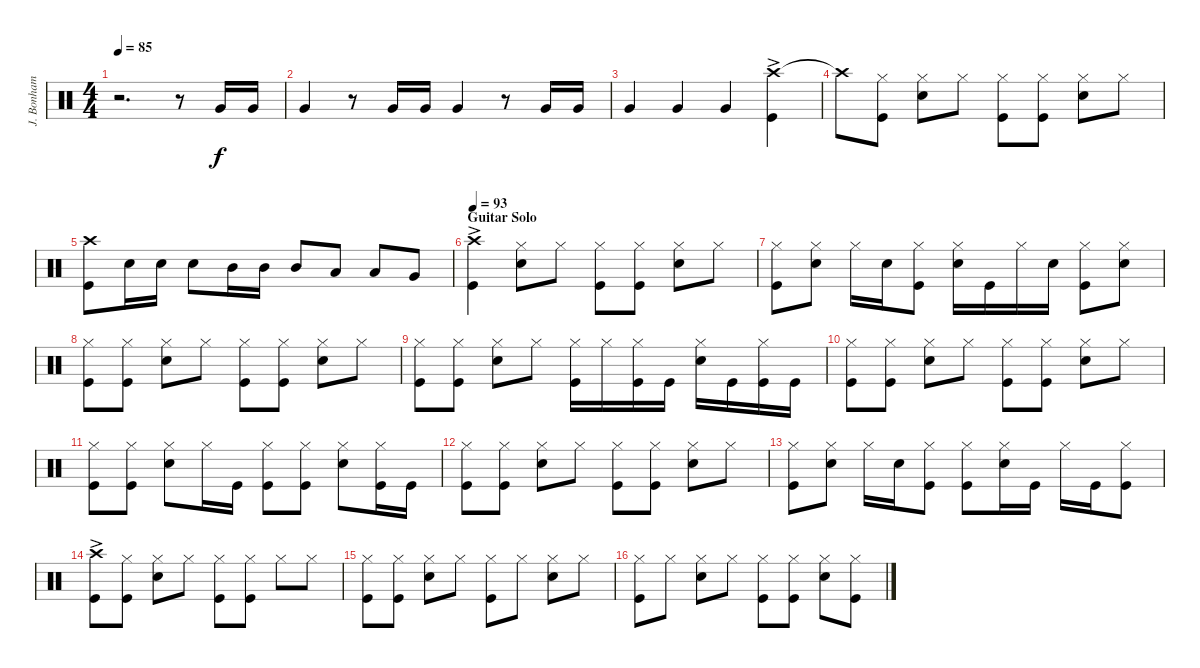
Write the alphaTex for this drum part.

\track ("J. Bonham" "J. Bonham") {instrument percussion}
\staff {score}
\articulation defaults
\ts (4 4)
\tempo 85
\clef neutral
\ks c
r.2{d dy f} r.8 "Very Low Tom (hit)".16 "Very Low Tom (hit)".16 |
"Very Low Tom (hit)".4 r.8 "Very Low Tom (hit)".16 "Very Low Tom (hit)".16 "Very Low Tom (hit)".4 r.8 "Very Low Tom (hit)".16 "Very Low Tom (hit)".16 |
"Very Low Tom (hit)".4 "Very Low Tom (hit)".4 "Very Low Tom (hit)".4 ("Crash high (hit)"{ac} "Kick (hit)").4 |
"Crash high (hit)"{t}.8 ("Hi-Hat (closed)" "Kick (hit)").8 ("Hi-Hat (closed)" "Snare (hit) 2").8 "Hi-Hat (closed)".8 ("Hi-Hat (closed)" "Kick (hit)").8 ("Hi-Hat (closed)" "Kick (hit)").8 ("Hi-Hat (closed)" "Snare (hit) 2").8 "Hi-Hat (closed)".8 |
("Crash high (hit)" "Kick (hit)").8 "Snare (hit) 2".16 "Snare (hit) 2".16 "Snare (hit) 2".8 "Mid Tom (hit)".16 "Mid Tom (hit)".16 "Mid Tom (hit)".8 "Low Tom (hit)".8 "Low Tom (hit)".8 "Very Low Tom (hit)".8 |
\section ("" "Guitar Solo")
\tempo 93
("Crash high (hit)"{ac} "Kick (hit)").4 ("Hi-Hat (closed)" "Snare (hit) 2").8 "Hi-Hat (closed)".8 ("Hi-Hat (closed)" "Kick (hit)").8 ("Hi-Hat (closed)" "Kick (hit)").8 ("Hi-Hat (closed)" "Snare (hit) 2").8 "Hi-Hat (closed)".8 |
("Hi-Hat (closed)" "Kick (hit)").8 ("Hi-Hat (closed)" "Snare (hit) 2").8 "Hi-Hat (closed)".16 "Snare (hit) 2".16 ("Hi-Hat (closed)" "Kick (hit)").8 ("Hi-Hat (closed)" "Snare (hit) 2").16 "Kick (hit)".16 "Hi-Hat (closed)".16 "Snare (hit) 2".16 ("Hi-Hat (closed)" "Kick (hit)").8 ("Hi-Hat (closed)" "Snare (hit) 2").8 |
("Hi-Hat (closed)" "Kick (hit)").8 ("Hi-Hat (closed)" "Kick (hit)").8 ("Hi-Hat (closed)" "Snare (hit) 2").8 "Hi-Hat (closed)".8 ("Hi-Hat (closed)" "Kick (hit)").8 ("Hi-Hat (closed)" "Kick (hit)").8 ("Hi-Hat (closed)" "Snare (hit) 2").8 "Hi-Hat (closed)".8 |
("Hi-Hat (closed)" "Kick (hit)").8 ("Hi-Hat (closed)" "Kick (hit)").8 ("Hi-Hat (closed)" "Snare (hit) 2").8 "Hi-Hat (closed)".8 ("Hi-Hat (closed)" "Kick (hit)").16 "Hi-Hat (closed)".16 ("Hi-Hat (closed)" "Kick (hit)").16 "Kick (hit)".16 ("Hi-Hat (closed)" "Snare (hit) 2").16 "Kick (hit)".16 ("Hi-Hat (closed)" "Kick (hit)").16 "Kick (hit)".16 |
("Hi-Hat (closed)" "Kick (hit)").8 ("Hi-Hat (closed)" "Kick (hit)").8 ("Hi-Hat (closed)" "Snare (hit) 2").8 "Hi-Hat (closed)".8 ("Hi-Hat (closed)" "Kick (hit)").8 ("Hi-Hat (closed)" "Kick (hit)").8 ("Hi-Hat (closed)" "Snare (hit) 2").8 "Hi-Hat (closed)".8 |
("Hi-Hat (closed)" "Kick (hit)").8 ("Hi-Hat (closed)" "Kick (hit)").8 ("Hi-Hat (closed)" "Snare (hit) 2").8 "Hi-Hat (closed)".16 "Kick (hit)".16 ("Hi-Hat (closed)" "Kick (hit)").8 ("Hi-Hat (closed)" "Kick (hit)").8 ("Hi-Hat (closed)" "Snare (hit) 2").8 ("Hi-Hat (closed)" "Kick (hit)").16 "Kick (hit)".16 |
("Hi-Hat (closed)" "Kick (hit)").8 ("Hi-Hat (closed)" "Kick (hit)").8 ("Hi-Hat (closed)" "Snare (hit) 2").8 "Hi-Hat (closed)".8 ("Hi-Hat (closed)" "Kick (hit)").8 ("Hi-Hat (closed)" "Kick (hit)").8 ("Hi-Hat (closed)" "Snare (hit) 2").8 "Hi-Hat (closed)".8 |
("Hi-Hat (closed)" "Kick (hit)").8 ("Hi-Hat (closed)" "Snare (hit) 2").8 "Hi-Hat (closed)".16 "Snare (hit) 2".16 ("Hi-Hat (closed)" "Kick (hit)").8 ("Hi-Hat (closed)" "Kick (hit)").8 ("Hi-Hat (closed)" "Snare (hit) 2").16 "Kick (hit)".16 "Hi-Hat (closed)".16 "Kick (hit)".16 ("Hi-Hat (closed)" "Kick (hit)").8 |
("Crash high (hit)"{ac} "Kick (hit)").8 ("Hi-Hat (closed)" "Kick (hit)").8 ("Hi-Hat (closed)" "Snare (hit) 2").8 "Hi-Hat (closed)".8 ("Hi-Hat (closed)" "Kick (hit)").8 ("Hi-Hat (closed)" "Kick (hit)").8 "Hi-Hat (closed)".8 "Hi-Hat (closed)".8 |
("Hi-Hat (closed)" "Kick (hit)").8 ("Hi-Hat (closed)" "Kick (hit)").8 ("Hi-Hat (closed)" "Snare (hit) 2").8 "Hi-Hat (closed)".8 ("Hi-Hat (closed)" "Kick (hit)").8 "Hi-Hat (closed)".8 ("Hi-Hat (closed)" "Snare (hit) 2").8 "Hi-Hat (closed)".8 |
("Hi-Hat (closed)" "Kick (hit)").8 "Hi-Hat (closed)".8 ("Hi-Hat (closed)" "Snare (hit) 2").8 "Hi-Hat (closed)".8 ("Hi-Hat (closed)" "Kick (hit)").8 ("Hi-Hat (closed)" "Kick (hit)").8 ("Hi-Hat (closed)" "Snare (hit) 2").8 ("Hi-Hat (closed)" "Kick (hit)").8
